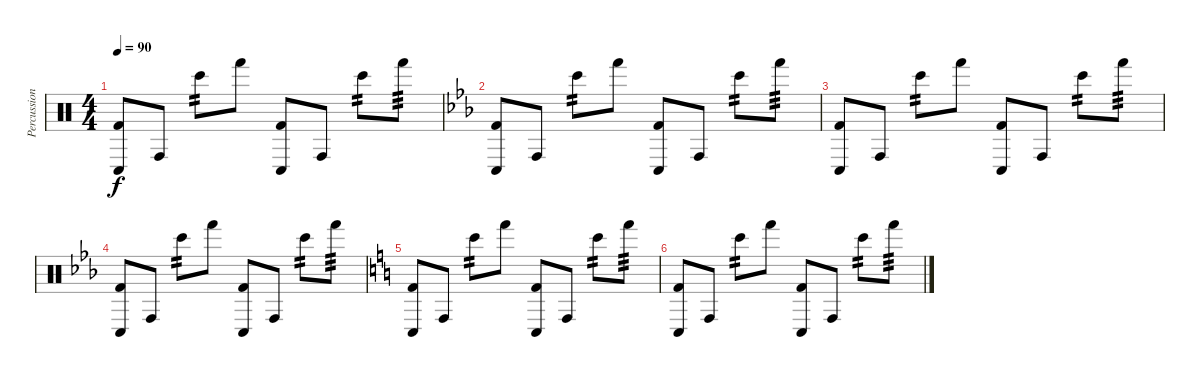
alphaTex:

\track ("Percussion" "Percussion") {instrument percussion}
\staff {score}
\articulation defaults
\ts (4 4)
\tempo 90
\clef neutral
\ks c
("Conga low (hit)" "Kick (hit) 2").8{dy f} "Conga high (hit)".8 "Bongo High (hit)".8{tp 2} "Hand (hit)".8 ("Conga low (hit)" "Kick (hit) 2").8 "Conga high (hit)".8 "Bongo High (hit)".8{tp 2} "Hand (hit)".8{tp 3} |
\ks eb
("Conga low (hit)" "Kick (hit) 2").8 "Conga high (hit)".8 "Bongo High (hit)".8{tp 2} "Hand (hit)".8 ("Conga low (hit)" "Kick (hit) 2").8 "Conga high (hit)".8 "Bongo High (hit)".8{tp 2} "Hand (hit)".8{tp 3} |
("Conga low (hit)" "Kick (hit) 2").8 "Conga high (hit)".8 "Bongo High (hit)".8{tp 2} "Hand (hit)".8 ("Conga low (hit)" "Kick (hit) 2").8 "Conga high (hit)".8 "Bongo High (hit)".8{tp 2} "Hand (hit)".8{tp 3} |
("Conga low (hit)" "Kick (hit) 2").8 "Conga high (hit)".8 "Bongo High (hit)".8{tp 2} "Hand (hit)".8 ("Conga low (hit)" "Kick (hit) 2").8 "Conga high (hit)".8 "Bongo High (hit)".8{tp 2} "Hand (hit)".8{tp 3} |
\ks c
("Conga low (hit)" "Kick (hit) 2").8 "Conga high (hit)".8 "Bongo High (hit)".8{tp 2} "Hand (hit)".8 ("Conga low (hit)" "Kick (hit) 2").8 "Conga high (hit)".8 "Bongo High (hit)".8{tp 2} "Hand (hit)".8{tp 3} |
("Conga low (hit)" "Kick (hit) 2").8 "Conga high (hit)".8 "Bongo High (hit)".8{tp 2} "Hand (hit)".8 ("Conga low (hit)" "Kick (hit) 2").8 "Conga high (hit)".8 "Bongo High (hit)".8{tp 2} "Hand (hit)".8{tp 3}
